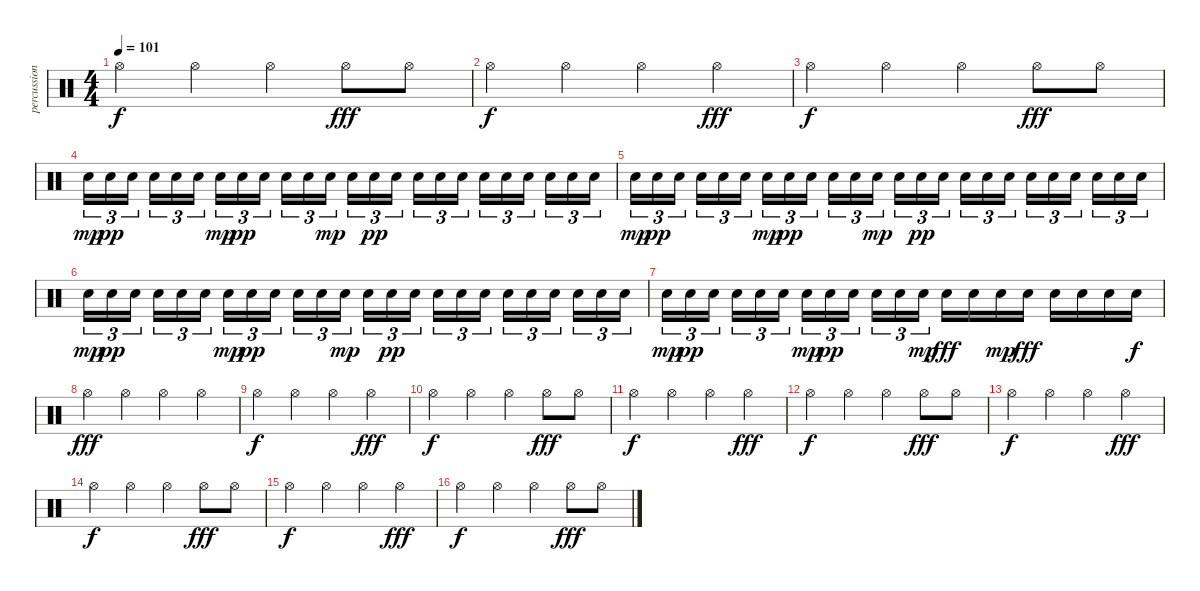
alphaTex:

\track ("percussion" "percussion") {instrument percussion}
\staff {score}
\articulation defaults
\ts (4 4)
\tempo 101
\clef neutral
\ks c "Hi-Hat (open)".4{dy f} "Hi-Hat (open)".4 "Hi-Hat (open)".4 "Hi-Hat (open)".8{dy fff} "Hi-Hat (open)".8
|
"Hi-Hat (open)".4{dy f} "Hi-Hat (open)".4 "Hi-Hat (open)".4 "Hi-Hat (open)".4{dy fff} |
"Hi-Hat (open)".4{dy f} "Hi-Hat (open)".4 "Hi-Hat (open)".4 "Hi-Hat (open)".8{dy fff} "Hi-Hat (open)".8 |
"Electric Snare (hit)".16{tu (3 2) dy mp} "Electric Snare (hit)".16{tu (3 2) dy pp} "Electric Snare (hit)".16{tu (3 2)} "Electric Snare (hit)".16{tu (3 2)} "Electric Snare (hit)".16{tu (3 2)} "Electric Snare (hit)".16{tu (3 2)} "Electric Snare (hit)".16{tu (3 2) dy mp} "Electric Snare (hit)".16{tu (3 2) dy pp} "Electric Snare (hit)".16{tu (3 2)} "Electric Snare (hit)".16{tu (3 2)} "Electric Snare (hit)".16{tu (3 2)} "Electric Snare (hit)".16{tu (3 2) dy mp} "Electric Snare (hit)".16{tu (3 2)} "Electric Snare (hit)".16{tu (3 2) dy pp} "Electric Snare (hit)".16{tu (3 2)} "Electric Snare (hit)".16{tu (3 2)} "Electric Snare (hit)".16{tu (3 2)} "Electric Snare (hit)".16{tu (3 2)} "Electric Snare (hit)".16{tu (3 2)} "Electric Snare (hit)".16{tu (3 2)} "Electric Snare (hit)".16{tu (3 2)} "Electric Snare (hit)".16{tu (3 2)} "Electric Snare (hit)".16{tu (3 2)} "Electric Snare (hit)".16{tu (3 2)} |
"Electric Snare (hit)".16{tu (3 2) dy mp} "Electric Snare (hit)".16{tu (3 2) dy pp} "Electric Snare (hit)".16{tu (3 2)} "Electric Snare (hit)".16{tu (3 2)} "Electric Snare (hit)".16{tu (3 2)} "Electric Snare (hit)".16{tu (3 2)} "Electric Snare (hit)".16{tu (3 2) dy mp} "Electric Snare (hit)".16{tu (3 2) dy pp} "Electric Snare (hit)".16{tu (3 2)} "Electric Snare (hit)".16{tu (3 2)} "Electric Snare (hit)".16{tu (3 2)} "Electric Snare (hit)".16{tu (3 2) dy mp} "Electric Snare (hit)".16{tu (3 2)} "Electric Snare (hit)".16{tu (3 2) dy pp} "Electric Snare (hit)".16{tu (3 2)} "Electric Snare (hit)".16{tu (3 2)} "Electric Snare (hit)".16{tu (3 2)} "Electric Snare (hit)".16{tu (3 2)} "Electric Snare (hit)".16{tu (3 2)} "Electric Snare (hit)".16{tu (3 2)} "Electric Snare (hit)".16{tu (3 2)} "Electric Snare (hit)".16{tu (3 2)} "Electric Snare (hit)".16{tu (3 2)} "Electric Snare (hit)".16{tu (3 2)} |
"Electric Snare (hit)".16{tu (3 2) dy mp} "Electric Snare (hit)".16{tu (3 2) dy pp} "Electric Snare (hit)".16{tu (3 2)} "Electric Snare (hit)".16{tu (3 2)} "Electric Snare (hit)".16{tu (3 2)} "Electric Snare (hit)".16{tu (3 2)} "Electric Snare (hit)".16{tu (3 2) dy mp} "Electric Snare (hit)".16{tu (3 2) dy pp} "Electric Snare (hit)".16{tu (3 2)} "Electric Snare (hit)".16{tu (3 2)} "Electric Snare (hit)".16{tu (3 2)} "Electric Snare (hit)".16{tu (3 2) dy mp} "Electric Snare (hit)".16{tu (3 2)} "Electric Snare (hit)".16{tu (3 2) dy pp} "Electric Snare (hit)".16{tu (3 2)} "Electric Snare (hit)".16{tu (3 2)} "Electric Snare (hit)".16{tu (3 2)} "Electric Snare (hit)".16{tu (3 2)} "Electric Snare (hit)".16{tu (3 2)} "Electric Snare (hit)".16{tu (3 2)} "Electric Snare (hit)".16{tu (3 2)} "Electric Snare (hit)".16{tu (3 2)} "Electric Snare (hit)".16{tu (3 2)} "Electric Snare (hit)".16{tu (3 2)} |
"Electric Snare (hit)".16{tu (3 2) dy mp} "Electric Snare (hit)".16{tu (3 2) dy pp} "Electric Snare (hit)".16{tu (3 2)} "Electric Snare (hit)".16{tu (3 2)} "Electric Snare (hit)".16{tu (3 2)} "Electric Snare (hit)".16{tu (3 2)} "Electric Snare (hit)".16{tu (3 2) dy mp} "Electric Snare (hit)".16{tu (3 2) dy pp} "Electric Snare (hit)".16{tu (3 2)} "Electric Snare (hit)".16{tu (3 2)} "Electric Snare (hit)".16{tu (3 2)} "Electric Snare (hit)".16{tu (3 2) dy mp} "Electric Snare (hit)".16{dy fff} "Electric Snare (hit)".16 "Electric Snare (hit)".16{dy mp} "Electric Snare (hit)".16{dy fff} "Electric Snare (hit)".16 "Electric Snare (hit)".16 "Electric Snare (hit)".16 "Electric Snare (hit)".16{dy f} |
"Hi-Hat (open)".4{dy fff} "Hi-Hat (open)".4 "Hi-Hat (open)".4 "Hi-Hat (open)".4 |
"Hi-Hat (open)".4{dy f} "Hi-Hat (open)".4 "Hi-Hat (open)".4 "Hi-Hat (open)".4{dy fff} |
"Hi-Hat (open)".4{dy f} "Hi-Hat (open)".4 "Hi-Hat (open)".4 "Hi-Hat (open)".8{dy fff} "Hi-Hat (open)".8 |
"Hi-Hat (open)".4{dy f} "Hi-Hat (open)".4 "Hi-Hat (open)".4 "Hi-Hat (open)".4{dy fff} |
"Hi-Hat (open)".4{dy f} "Hi-Hat (open)".4 "Hi-Hat (open)".4 "Hi-Hat (open)".8{dy fff} "Hi-Hat (open)".8 |
"Hi-Hat (open)".4{dy f} "Hi-Hat (open)".4 "Hi-Hat (open)".4 "Hi-Hat (open)".4{dy fff} |
"Hi-Hat (open)".4{dy f} "Hi-Hat (open)".4 "Hi-Hat (open)".4 "Hi-Hat (open)".8{dy fff} "Hi-Hat (open)".8 |
"Hi-Hat (open)".4{dy f} "Hi-Hat (open)".4 "Hi-Hat (open)".4 "Hi-Hat (open)".4{dy fff} |
"Hi-Hat (open)".4{dy f} "Hi-Hat (open)".4 "Hi-Hat (open)".4 "Hi-Hat (open)".8{dy fff} "Hi-Hat (open)".8
